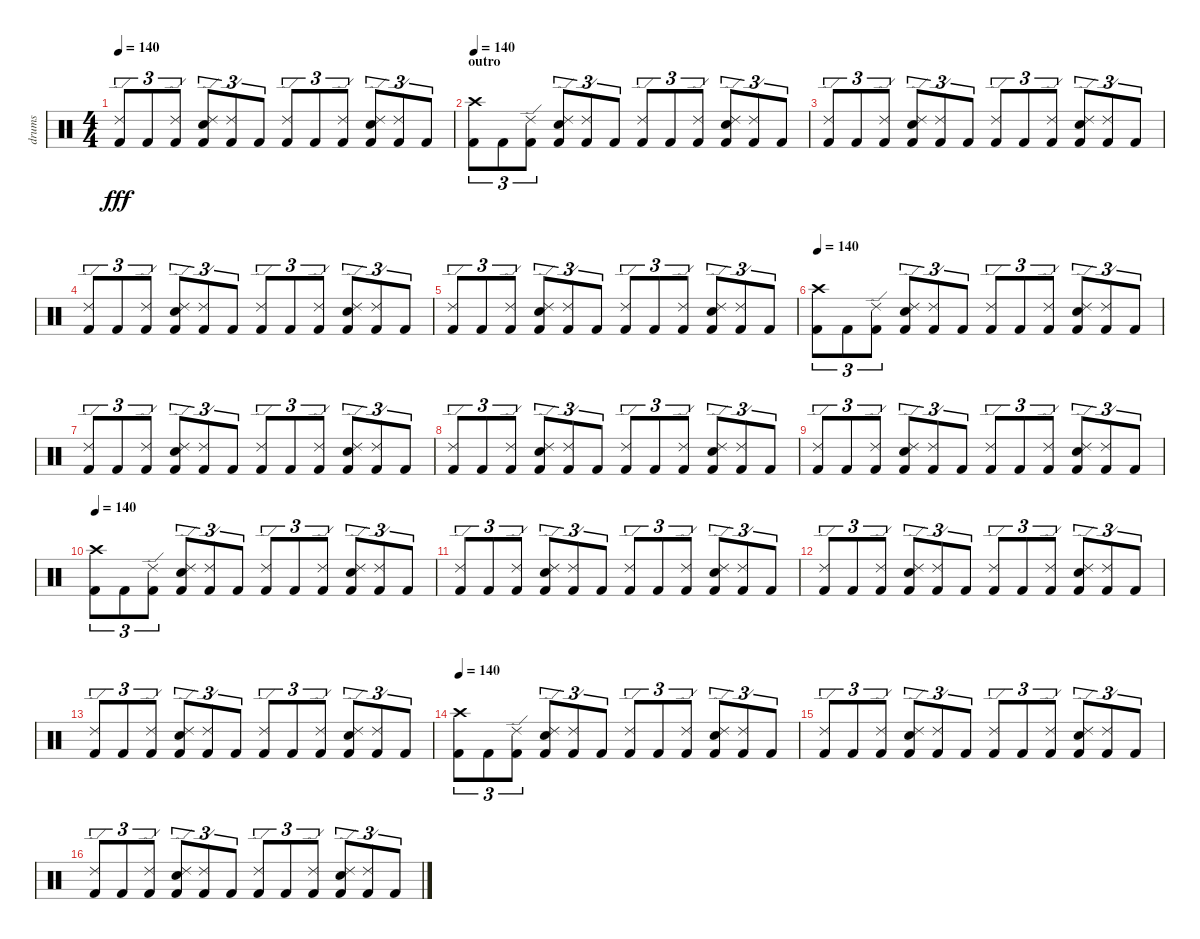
\track ("drums" "drums") {instrument percussion}
\staff {score}
\articulation defaults
\ts (4 4)
\tempo 140
\clef neutral
\ks c
("Ride (edge) 2" "Kick (hit) 2").8{tu (3 2) dy fff} "Kick (hit) 2".8{tu (3 2)} ("Ride (edge) 2" "Kick (hit) 2").8{tu (3 2)} ("Ride (edge) 2" "Snare (hit) 2" "Kick (hit) 2").8{tu (3 2)} ("Ride (edge) 2" "Kick (hit) 2").8{tu (3 2)} "Kick (hit) 2".8{tu (3 2)} ("Ride (edge) 2" "Kick (hit) 2").8{tu (3 2)} "Kick (hit) 2".8{tu (3 2)} ("Ride (edge) 2" "Kick (hit) 2").8{tu (3 2)} ("Ride (edge) 2" "Snare (hit) 2" "Kick (hit) 2").8{tu (3 2)} ("Ride (edge) 2" "Kick (hit) 2").8{tu (3 2)} "Kick (hit) 2".8{tu (3 2)} |
\section ("" "outro")
\tempo 140
("Crash high (hit)" "Kick (hit) 2").8{tu (3 2)} "Kick (hit) 2".8{tu (3 2)} ("Ride (edge) 2" "Kick (hit) 2").8{tu (3 2)} ("Ride (edge) 2" "Snare (hit) 2" "Kick (hit) 2").8{tu (3 2)} ("Ride (edge) 2" "Kick (hit) 2").8{tu (3 2)} "Kick (hit) 2".8{tu (3 2)} ("Ride (edge) 2" "Kick (hit) 2").8{tu (3 2)} "Kick (hit) 2".8{tu (3 2)} ("Ride (edge) 2" "Kick (hit) 2").8{tu (3 2)} ("Ride (edge) 2" "Snare (hit) 2" "Kick (hit) 2").8{tu (3 2)} ("Ride (edge) 2" "Kick (hit) 2").8{tu (3 2)} "Kick (hit) 2".8{tu (3 2)} |
("Ride (edge) 2" "Kick (hit) 2").8{tu (3 2)} "Kick (hit) 2".8{tu (3 2)} ("Ride (edge) 2" "Kick (hit) 2").8{tu (3 2)} ("Ride (edge) 2" "Snare (hit) 2" "Kick (hit) 2").8{tu (3 2)} ("Ride (edge) 2" "Kick (hit) 2").8{tu (3 2)} "Kick (hit) 2".8{tu (3 2)} ("Ride (edge) 2" "Kick (hit) 2").8{tu (3 2)} "Kick (hit) 2".8{tu (3 2)} ("Ride (edge) 2" "Kick (hit) 2").8{tu (3 2)} ("Ride (edge) 2" "Snare (hit) 2" "Kick (hit) 2").8{tu (3 2)} ("Ride (edge) 2" "Kick (hit) 2").8{tu (3 2)} "Kick (hit) 2".8{tu (3 2)} |
("Ride (edge) 2" "Kick (hit) 2").8{tu (3 2)} "Kick (hit) 2".8{tu (3 2)} ("Ride (edge) 2" "Kick (hit) 2").8{tu (3 2)} ("Ride (edge) 2" "Snare (hit) 2" "Kick (hit) 2").8{tu (3 2)} ("Ride (edge) 2" "Kick (hit) 2").8{tu (3 2)} "Kick (hit) 2".8{tu (3 2)} ("Ride (edge) 2" "Kick (hit) 2").8{tu (3 2)} "Kick (hit) 2".8{tu (3 2)} ("Ride (edge) 2" "Kick (hit) 2").8{tu (3 2)} ("Ride (edge) 2" "Snare (hit) 2" "Kick (hit) 2").8{tu (3 2)} ("Ride (edge) 2" "Kick (hit) 2").8{tu (3 2)} "Kick (hit) 2".8{tu (3 2)} |
("Ride (edge) 2" "Kick (hit) 2").8{tu (3 2)} "Kick (hit) 2".8{tu (3 2)} ("Ride (edge) 2" "Kick (hit) 2").8{tu (3 2)} ("Ride (edge) 2" "Snare (hit) 2" "Kick (hit) 2").8{tu (3 2)} ("Ride (edge) 2" "Kick (hit) 2").8{tu (3 2)} "Kick (hit) 2".8{tu (3 2)} ("Ride (edge) 2" "Kick (hit) 2").8{tu (3 2)} "Kick (hit) 2".8{tu (3 2)} ("Ride (edge) 2" "Kick (hit) 2").8{tu (3 2)} ("Ride (edge) 2" "Snare (hit) 2" "Kick (hit) 2").8{tu (3 2)} ("Ride (edge) 2" "Kick (hit) 2").8{tu (3 2)} "Kick (hit) 2".8{tu (3 2)} |
\tempo 140
("Crash high (hit)" "Kick (hit) 2").8{tu (3 2)} "Kick (hit) 2".8{tu (3 2)} ("Ride (edge) 2" "Kick (hit) 2").8{tu (3 2)} ("Ride (edge) 2" "Snare (hit) 2" "Kick (hit) 2").8{tu (3 2)} ("Ride (edge) 2" "Kick (hit) 2").8{tu (3 2)} "Kick (hit) 2".8{tu (3 2)} ("Ride (edge) 2" "Kick (hit) 2").8{tu (3 2)} "Kick (hit) 2".8{tu (3 2)} ("Ride (edge) 2" "Kick (hit) 2").8{tu (3 2)} ("Ride (edge) 2" "Snare (hit) 2" "Kick (hit) 2").8{tu (3 2)} ("Ride (edge) 2" "Kick (hit) 2").8{tu (3 2)} "Kick (hit) 2".8{tu (3 2)} |
("Ride (edge) 2" "Kick (hit) 2").8{tu (3 2)} "Kick (hit) 2".8{tu (3 2)} ("Ride (edge) 2" "Kick (hit) 2").8{tu (3 2)} ("Ride (edge) 2" "Snare (hit) 2" "Kick (hit) 2").8{tu (3 2)} ("Ride (edge) 2" "Kick (hit) 2").8{tu (3 2)} "Kick (hit) 2".8{tu (3 2)} ("Ride (edge) 2" "Kick (hit) 2").8{tu (3 2)} "Kick (hit) 2".8{tu (3 2)} ("Ride (edge) 2" "Kick (hit) 2").8{tu (3 2)} ("Ride (edge) 2" "Snare (hit) 2" "Kick (hit) 2").8{tu (3 2)} ("Ride (edge) 2" "Kick (hit) 2").8{tu (3 2)} "Kick (hit) 2".8{tu (3 2)} |
("Ride (edge) 2" "Kick (hit) 2").8{tu (3 2)} "Kick (hit) 2".8{tu (3 2)} ("Ride (edge) 2" "Kick (hit) 2").8{tu (3 2)} ("Ride (edge) 2" "Snare (hit) 2" "Kick (hit) 2").8{tu (3 2)} ("Ride (edge) 2" "Kick (hit) 2").8{tu (3 2)} "Kick (hit) 2".8{tu (3 2)} ("Ride (edge) 2" "Kick (hit) 2").8{tu (3 2)} "Kick (hit) 2".8{tu (3 2)} ("Ride (edge) 2" "Kick (hit) 2").8{tu (3 2)} ("Ride (edge) 2" "Snare (hit) 2" "Kick (hit) 2").8{tu (3 2)} ("Ride (edge) 2" "Kick (hit) 2").8{tu (3 2)} "Kick (hit) 2".8{tu (3 2)} |
("Ride (edge) 2" "Kick (hit) 2").8{tu (3 2)} "Kick (hit) 2".8{tu (3 2)} ("Ride (edge) 2" "Kick (hit) 2").8{tu (3 2)} ("Ride (edge) 2" "Snare (hit) 2" "Kick (hit) 2").8{tu (3 2)} ("Ride (edge) 2" "Kick (hit) 2").8{tu (3 2)} "Kick (hit) 2".8{tu (3 2)} ("Ride (edge) 2" "Kick (hit) 2").8{tu (3 2)} "Kick (hit) 2".8{tu (3 2)} ("Ride (edge) 2" "Kick (hit) 2").8{tu (3 2)} ("Ride (edge) 2" "Snare (hit) 2" "Kick (hit) 2").8{tu (3 2)} ("Ride (edge) 2" "Kick (hit) 2").8{tu (3 2)} "Kick (hit) 2".8{tu (3 2)} |
\tempo 140
("Crash high (hit)" "Kick (hit) 2").8{tu (3 2)} "Kick (hit) 2".8{tu (3 2)} ("Ride (edge) 2" "Kick (hit) 2").8{tu (3 2)} ("Ride (edge) 2" "Snare (hit) 2" "Kick (hit) 2").8{tu (3 2)} ("Ride (edge) 2" "Kick (hit) 2").8{tu (3 2)} "Kick (hit) 2".8{tu (3 2)} ("Ride (edge) 2" "Kick (hit) 2").8{tu (3 2)} "Kick (hit) 2".8{tu (3 2)} ("Ride (edge) 2" "Kick (hit) 2").8{tu (3 2)} ("Ride (edge) 2" "Snare (hit) 2" "Kick (hit) 2").8{tu (3 2)} ("Ride (edge) 2" "Kick (hit) 2").8{tu (3 2)} "Kick (hit) 2".8{tu (3 2)} |
("Ride (edge) 2" "Kick (hit) 2").8{tu (3 2)} "Kick (hit) 2".8{tu (3 2)} ("Ride (edge) 2" "Kick (hit) 2").8{tu (3 2)} ("Ride (edge) 2" "Snare (hit) 2" "Kick (hit) 2").8{tu (3 2)} ("Ride (edge) 2" "Kick (hit) 2").8{tu (3 2)} "Kick (hit) 2".8{tu (3 2)} ("Ride (edge) 2" "Kick (hit) 2").8{tu (3 2)} "Kick (hit) 2".8{tu (3 2)} ("Ride (edge) 2" "Kick (hit) 2").8{tu (3 2)} ("Ride (edge) 2" "Snare (hit) 2" "Kick (hit) 2").8{tu (3 2)} ("Ride (edge) 2" "Kick (hit) 2").8{tu (3 2)} "Kick (hit) 2".8{tu (3 2)} |
("Ride (edge) 2" "Kick (hit) 2").8{tu (3 2)} "Kick (hit) 2".8{tu (3 2)} ("Ride (edge) 2" "Kick (hit) 2").8{tu (3 2)} ("Ride (edge) 2" "Snare (hit) 2" "Kick (hit) 2").8{tu (3 2)} ("Ride (edge) 2" "Kick (hit) 2").8{tu (3 2)} "Kick (hit) 2".8{tu (3 2)} ("Ride (edge) 2" "Kick (hit) 2").8{tu (3 2)} "Kick (hit) 2".8{tu (3 2)} ("Ride (edge) 2" "Kick (hit) 2").8{tu (3 2)} ("Ride (edge) 2" "Snare (hit) 2" "Kick (hit) 2").8{tu (3 2)} ("Ride (edge) 2" "Kick (hit) 2").8{tu (3 2)} "Kick (hit) 2".8{tu (3 2)} |
("Ride (edge) 2" "Kick (hit) 2").8{tu (3 2)} "Kick (hit) 2".8{tu (3 2)} ("Ride (edge) 2" "Kick (hit) 2").8{tu (3 2)} ("Ride (edge) 2" "Snare (hit) 2" "Kick (hit) 2").8{tu (3 2)} ("Ride (edge) 2" "Kick (hit) 2").8{tu (3 2)} "Kick (hit) 2".8{tu (3 2)} ("Ride (edge) 2" "Kick (hit) 2").8{tu (3 2)} "Kick (hit) 2".8{tu (3 2)} ("Ride (edge) 2" "Kick (hit) 2").8{tu (3 2)} ("Ride (edge) 2" "Snare (hit) 2" "Kick (hit) 2").8{tu (3 2)} ("Ride (edge) 2" "Kick (hit) 2").8{tu (3 2)} "Kick (hit) 2".8{tu (3 2)} |
\tempo 140
("Crash high (hit)" "Kick (hit) 2").8{tu (3 2)} "Kick (hit) 2".8{tu (3 2)} ("Ride (edge) 2" "Kick (hit) 2").8{tu (3 2)} ("Ride (edge) 2" "Snare (hit) 2" "Kick (hit) 2").8{tu (3 2)} ("Ride (edge) 2" "Kick (hit) 2").8{tu (3 2)} "Kick (hit) 2".8{tu (3 2)} ("Ride (edge) 2" "Kick (hit) 2").8{tu (3 2)} "Kick (hit) 2".8{tu (3 2)} ("Ride (edge) 2" "Kick (hit) 2").8{tu (3 2)} ("Ride (edge) 2" "Snare (hit) 2" "Kick (hit) 2").8{tu (3 2)} ("Ride (edge) 2" "Kick (hit) 2").8{tu (3 2)} "Kick (hit) 2".8{tu (3 2)} |
("Ride (edge) 2" "Kick (hit) 2").8{tu (3 2)} "Kick (hit) 2".8{tu (3 2)} ("Ride (edge) 2" "Kick (hit) 2").8{tu (3 2)} ("Ride (edge) 2" "Snare (hit) 2" "Kick (hit) 2").8{tu (3 2)} ("Ride (edge) 2" "Kick (hit) 2").8{tu (3 2)} "Kick (hit) 2".8{tu (3 2)} ("Ride (edge) 2" "Kick (hit) 2").8{tu (3 2)} "Kick (hit) 2".8{tu (3 2)} ("Ride (edge) 2" "Kick (hit) 2").8{tu (3 2)} ("Ride (edge) 2" "Snare (hit) 2" "Kick (hit) 2").8{tu (3 2)} ("Ride (edge) 2" "Kick (hit) 2").8{tu (3 2)} "Kick (hit) 2".8{tu (3 2)} |
("Ride (edge) 2" "Kick (hit) 2").8{tu (3 2)} "Kick (hit) 2".8{tu (3 2)} ("Ride (edge) 2" "Kick (hit) 2").8{tu (3 2)} ("Ride (edge) 2" "Snare (hit) 2" "Kick (hit) 2").8{tu (3 2)} ("Ride (edge) 2" "Kick (hit) 2").8{tu (3 2)} "Kick (hit) 2".8{tu (3 2)} ("Ride (edge) 2" "Kick (hit) 2").8{tu (3 2)} "Kick (hit) 2".8{tu (3 2)} ("Ride (edge) 2" "Kick (hit) 2").8{tu (3 2)} ("Ride (edge) 2" "Snare (hit) 2" "Kick (hit) 2").8{tu (3 2)} ("Ride (edge) 2" "Kick (hit) 2").8{tu (3 2)} "Kick (hit) 2".8{tu (3 2)}
